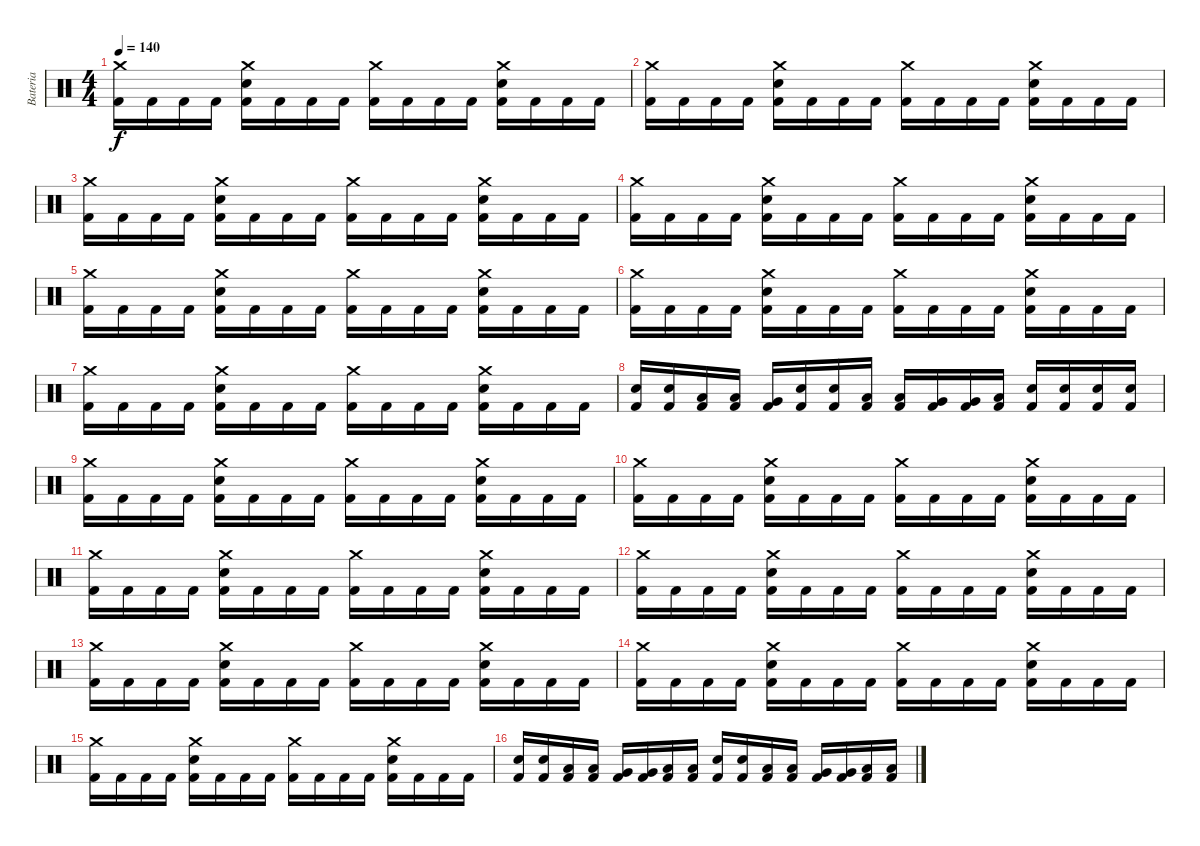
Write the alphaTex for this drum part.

\track ("Bateria" "Bateria") {instrument percussion}
\staff {score}
\articulation defaults
\ts (4 4)
\tempo 140
\clef neutral
\ks c
("Crash medium (hit)" "Kick (hit) 2").16{dy f} "Kick (hit) 2".16 "Kick (hit) 2".16 "Kick (hit) 2".16 ("Crash medium (hit)" "Electric Snare (hit)" "Kick (hit) 2").16 "Kick (hit) 2".16 "Kick (hit) 2".16 "Kick (hit) 2".16 ("Crash medium (hit)" "Kick (hit) 2").16 "Kick (hit) 2".16 "Kick (hit) 2".16 "Kick (hit) 2".16 ("Crash medium (hit)" "Electric Snare (hit)" "Kick (hit) 2").16 "Kick (hit) 2".16 "Kick (hit) 2".16 "Kick (hit) 2".16 |
("Crash medium (hit)" "Kick (hit) 2").16 "Kick (hit) 2".16 "Kick (hit) 2".16 "Kick (hit) 2".16 ("Crash medium (hit)" "Electric Snare (hit)" "Kick (hit) 2").16 "Kick (hit) 2".16 "Kick (hit) 2".16 "Kick (hit) 2".16 ("Crash medium (hit)" "Kick (hit) 2").16 "Kick (hit) 2".16 "Kick (hit) 2".16 "Kick (hit) 2".16 ("Crash medium (hit)" "Electric Snare (hit)" "Kick (hit) 2").16 "Kick (hit) 2".16 "Kick (hit) 2".16 "Kick (hit) 2".16 |
("Crash medium (hit)" "Kick (hit) 2").16 "Kick (hit) 2".16 "Kick (hit) 2".16 "Kick (hit) 2".16 ("Crash medium (hit)" "Electric Snare (hit)" "Kick (hit) 2").16 "Kick (hit) 2".16 "Kick (hit) 2".16 "Kick (hit) 2".16 ("Crash medium (hit)" "Kick (hit) 2").16 "Kick (hit) 2".16 "Kick (hit) 2".16 "Kick (hit) 2".16 ("Crash medium (hit)" "Electric Snare (hit)" "Kick (hit) 2").16 "Kick (hit) 2".16 "Kick (hit) 2".16 "Kick (hit) 2".16 |
("Crash medium (hit)" "Kick (hit) 2").16 "Kick (hit) 2".16 "Kick (hit) 2".16 "Kick (hit) 2".16 ("Crash medium (hit)" "Electric Snare (hit)" "Kick (hit) 2").16 "Kick (hit) 2".16 "Kick (hit) 2".16 "Kick (hit) 2".16 ("Crash medium (hit)" "Kick (hit) 2").16 "Kick (hit) 2".16 "Kick (hit) 2".16 "Kick (hit) 2".16 ("Crash medium (hit)" "Electric Snare (hit)" "Kick (hit) 2").16 "Kick (hit) 2".16 "Kick (hit) 2".16 "Kick (hit) 2".16 |
("Crash medium (hit)" "Kick (hit) 2").16 "Kick (hit) 2".16 "Kick (hit) 2".16 "Kick (hit) 2".16 ("Crash medium (hit)" "Electric Snare (hit)" "Kick (hit) 2").16 "Kick (hit) 2".16 "Kick (hit) 2".16 "Kick (hit) 2".16 ("Crash medium (hit)" "Kick (hit) 2").16 "Kick (hit) 2".16 "Kick (hit) 2".16 "Kick (hit) 2".16 ("Crash medium (hit)" "Electric Snare (hit)" "Kick (hit) 2").16 "Kick (hit) 2".16 "Kick (hit) 2".16 "Kick (hit) 2".16 |
("Crash medium (hit)" "Kick (hit) 2").16 "Kick (hit) 2".16 "Kick (hit) 2".16 "Kick (hit) 2".16 ("Crash medium (hit)" "Electric Snare (hit)" "Kick (hit) 2").16 "Kick (hit) 2".16 "Kick (hit) 2".16 "Kick (hit) 2".16 ("Crash medium (hit)" "Kick (hit) 2").16 "Kick (hit) 2".16 "Kick (hit) 2".16 "Kick (hit) 2".16 ("Crash medium (hit)" "Electric Snare (hit)" "Kick (hit) 2").16 "Kick (hit) 2".16 "Kick (hit) 2".16 "Kick (hit) 2".16 |
("Crash medium (hit)" "Kick (hit) 2").16 "Kick (hit) 2".16 "Kick (hit) 2".16 "Kick (hit) 2".16 ("Crash medium (hit)" "Electric Snare (hit)" "Kick (hit) 2").16 "Kick (hit) 2".16 "Kick (hit) 2".16 "Kick (hit) 2".16 ("Crash medium (hit)" "Kick (hit) 2").16 "Kick (hit) 2".16 "Kick (hit) 2".16 "Kick (hit) 2".16 ("Crash medium (hit)" "Electric Snare (hit)" "Kick (hit) 2").16 "Kick (hit) 2".16 "Kick (hit) 2".16 "Kick (hit) 2".16 |
("Electric Snare (hit)" "Kick (hit) 2").16 ("Electric Snare (hit)" "Kick (hit) 2").16 ("Low Tom (hit)" "Kick (hit) 2").16 ("Low Tom (hit)" "Kick (hit) 2").16 ("Very Low Tom (hit)" "Kick (hit) 2").16 ("Electric Snare (hit)" "Kick (hit) 2").16 ("Electric Snare (hit)" "Kick (hit) 2").16 ("Low Tom (hit)" "Kick (hit) 2").16 ("Low Tom (hit)" "Kick (hit) 2").16 ("Very Low Tom (hit)" "Kick (hit) 2").16 ("Very Low Tom (hit)" "Kick (hit) 2").16 ("Low Floor Tom (hit)" "Kick (hit) 2").16 ("Electric Snare (hit)" "Kick (hit) 2").16 ("Electric Snare (hit)" "Kick (hit) 2").16 ("Electric Snare (hit)" "Kick (hit) 2").16 ("Electric Snare (hit)" "Kick (hit) 2").16 |
("Crash medium (hit)" "Kick (hit) 2").16 "Kick (hit) 2".16 "Kick (hit) 2".16 "Kick (hit) 2".16 ("Crash medium (hit)" "Electric Snare (hit)" "Kick (hit) 2").16 "Kick (hit) 2".16 "Kick (hit) 2".16 "Kick (hit) 2".16 ("Crash medium (hit)" "Kick (hit) 2").16 "Kick (hit) 2".16 "Kick (hit) 2".16 "Kick (hit) 2".16 ("Crash medium (hit)" "Electric Snare (hit)" "Kick (hit) 2").16 "Kick (hit) 2".16 "Kick (hit) 2".16 "Kick (hit) 2".16 |
("Crash medium (hit)" "Kick (hit) 2").16 "Kick (hit) 2".16 "Kick (hit) 2".16 "Kick (hit) 2".16 ("Crash medium (hit)" "Electric Snare (hit)" "Kick (hit) 2").16 "Kick (hit) 2".16 "Kick (hit) 2".16 "Kick (hit) 2".16 ("Crash medium (hit)" "Kick (hit) 2").16 "Kick (hit) 2".16 "Kick (hit) 2".16 "Kick (hit) 2".16 ("Crash medium (hit)" "Electric Snare (hit)" "Kick (hit) 2").16 "Kick (hit) 2".16 "Kick (hit) 2".16 "Kick (hit) 2".16 |
("Crash medium (hit)" "Kick (hit) 2").16 "Kick (hit) 2".16 "Kick (hit) 2".16 "Kick (hit) 2".16 ("Crash medium (hit)" "Electric Snare (hit)" "Kick (hit) 2").16 "Kick (hit) 2".16 "Kick (hit) 2".16 "Kick (hit) 2".16 ("Crash medium (hit)" "Kick (hit) 2").16 "Kick (hit) 2".16 "Kick (hit) 2".16 "Kick (hit) 2".16 ("Crash medium (hit)" "Electric Snare (hit)" "Kick (hit) 2").16 "Kick (hit) 2".16 "Kick (hit) 2".16 "Kick (hit) 2".16 |
("Crash medium (hit)" "Kick (hit) 2").16 "Kick (hit) 2".16 "Kick (hit) 2".16 "Kick (hit) 2".16 ("Crash medium (hit)" "Electric Snare (hit)" "Kick (hit) 2").16 "Kick (hit) 2".16 "Kick (hit) 2".16 "Kick (hit) 2".16 ("Crash medium (hit)" "Kick (hit) 2").16 "Kick (hit) 2".16 "Kick (hit) 2".16 "Kick (hit) 2".16 ("Crash medium (hit)" "Electric Snare (hit)" "Kick (hit) 2").16 "Kick (hit) 2".16 "Kick (hit) 2".16 "Kick (hit) 2".16 |
("Crash medium (hit)" "Kick (hit) 2").16 "Kick (hit) 2".16 "Kick (hit) 2".16 "Kick (hit) 2".16 ("Crash medium (hit)" "Electric Snare (hit)" "Kick (hit) 2").16 "Kick (hit) 2".16 "Kick (hit) 2".16 "Kick (hit) 2".16 ("Crash medium (hit)" "Kick (hit) 2").16 "Kick (hit) 2".16 "Kick (hit) 2".16 "Kick (hit) 2".16 ("Crash medium (hit)" "Electric Snare (hit)" "Kick (hit) 2").16 "Kick (hit) 2".16 "Kick (hit) 2".16 "Kick (hit) 2".16 |
("Crash medium (hit)" "Kick (hit) 2").16 "Kick (hit) 2".16 "Kick (hit) 2".16 "Kick (hit) 2".16 ("Crash medium (hit)" "Electric Snare (hit)" "Kick (hit) 2").16 "Kick (hit) 2".16 "Kick (hit) 2".16 "Kick (hit) 2".16 ("Crash medium (hit)" "Kick (hit) 2").16 "Kick (hit) 2".16 "Kick (hit) 2".16 "Kick (hit) 2".16 ("Crash medium (hit)" "Electric Snare (hit)" "Kick (hit) 2").16 "Kick (hit) 2".16 "Kick (hit) 2".16 "Kick (hit) 2".16 |
("Crash medium (hit)" "Kick (hit) 2").16 "Kick (hit) 2".16 "Kick (hit) 2".16 "Kick (hit) 2".16 ("Crash medium (hit)" "Electric Snare (hit)" "Kick (hit) 2").16 "Kick (hit) 2".16 "Kick (hit) 2".16 "Kick (hit) 2".16 ("Crash medium (hit)" "Kick (hit) 2").16 "Kick (hit) 2".16 "Kick (hit) 2".16 "Kick (hit) 2".16 ("Crash medium (hit)" "Electric Snare (hit)" "Kick (hit) 2").16 "Kick (hit) 2".16 "Kick (hit) 2".16 "Kick (hit) 2".16 |
("Electric Snare (hit)" "Kick (hit) 2").16 ("Electric Snare (hit)" "Kick (hit) 2").16 ("Low Tom (hit)" "Kick (hit) 2").16 ("Low Tom (hit)" "Kick (hit) 2").16 ("Very Low Tom (hit)" "Kick (hit) 2").16 ("Very Low Tom (hit)" "Kick (hit) 2").16 ("Low Floor Tom (hit)" "Kick (hit) 2").16 ("Low Floor Tom (hit)" "Kick (hit) 2").16 ("Electric Snare (hit)" "Kick (hit) 2").16 ("Electric Snare (hit)" "Kick (hit) 2").16 ("Low Tom (hit)" "Kick (hit) 2").16 ("Low Tom (hit)" "Kick (hit) 2").16 ("Very Low Tom (hit)" "Kick (hit) 2").16 ("Very Low Tom (hit)" "Kick (hit) 2").16 ("Low Floor Tom (hit)" "Kick (hit) 2").16 ("Low Floor Tom (hit)" "Kick (hit) 2").16
